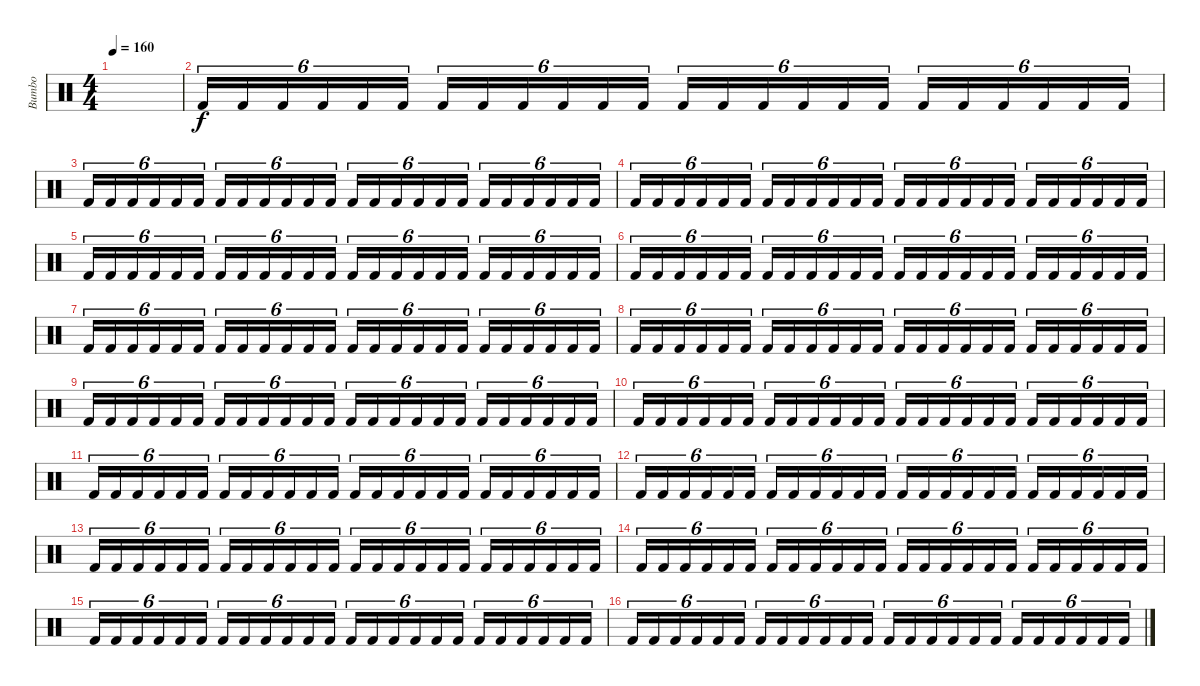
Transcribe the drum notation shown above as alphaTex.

\track ("Bumbo" "Bumbo") {instrument percussion}
\staff {score}
\articulation defaults
\ts (4 4)
\tempo 160
\clef neutral
\ks c
|
"Kick (hit) 2".16{tu (6 4)} "Kick (hit) 2".16{tu (6 4)} "Kick (hit) 2".16{tu (6 4)} "Kick (hit) 2".16{tu (6 4)} "Kick (hit) 2".16{tu (6 4)} "Kick (hit) 2".16{tu (6 4)} "Kick (hit) 2".16{tu (6 4)} "Kick (hit) 2".16{tu (6 4)} "Kick (hit) 2".16{tu (6 4)} "Kick (hit) 2".16{tu (6 4)} "Kick (hit) 2".16{tu (6 4)} "Kick (hit) 2".16{tu (6 4)} "Kick (hit) 2".16{tu (6 4)} "Kick (hit) 2".16{tu (6 4)} "Kick (hit) 2".16{tu (6 4)} "Kick (hit) 2".16{tu (6 4)} "Kick (hit) 2".16{tu (6 4)} "Kick (hit) 2".16{tu (6 4)} "Kick (hit) 2".16{tu (6 4)} "Kick (hit) 2".16{tu (6 4)} "Kick (hit) 2".16{tu (6 4)} "Kick (hit) 2".16{tu (6 4)} "Kick (hit) 2".16{tu (6 4)} "Kick (hit) 2".16{tu (6 4)} |
"Kick (hit) 2".16{tu (6 4)} "Kick (hit) 2".16{tu (6 4)} "Kick (hit) 2".16{tu (6 4)} "Kick (hit) 2".16{tu (6 4)} "Kick (hit) 2".16{tu (6 4)} "Kick (hit) 2".16{tu (6 4)} "Kick (hit) 2".16{tu (6 4)} "Kick (hit) 2".16{tu (6 4)} "Kick (hit) 2".16{tu (6 4)} "Kick (hit) 2".16{tu (6 4)} "Kick (hit) 2".16{tu (6 4)} "Kick (hit) 2".16{tu (6 4)} "Kick (hit) 2".16{tu (6 4)} "Kick (hit) 2".16{tu (6 4)} "Kick (hit) 2".16{tu (6 4)} "Kick (hit) 2".16{tu (6 4)} "Kick (hit) 2".16{tu (6 4)} "Kick (hit) 2".16{tu (6 4)} "Kick (hit) 2".16{tu (6 4)} "Kick (hit) 2".16{tu (6 4)} "Kick (hit) 2".16{tu (6 4)} "Kick (hit) 2".16{tu (6 4)} "Kick (hit) 2".16{tu (6 4)} "Kick (hit) 2".16{tu (6 4)} |
"Kick (hit) 2".16{tu (6 4)} "Kick (hit) 2".16{tu (6 4)} "Kick (hit) 2".16{tu (6 4)} "Kick (hit) 2".16{tu (6 4)} "Kick (hit) 2".16{tu (6 4)} "Kick (hit) 2".16{tu (6 4)} "Kick (hit) 2".16{tu (6 4)} "Kick (hit) 2".16{tu (6 4)} "Kick (hit) 2".16{tu (6 4)} "Kick (hit) 2".16{tu (6 4)} "Kick (hit) 2".16{tu (6 4)} "Kick (hit) 2".16{tu (6 4)} "Kick (hit) 2".16{tu (6 4)} "Kick (hit) 2".16{tu (6 4)} "Kick (hit) 2".16{tu (6 4)} "Kick (hit) 2".16{tu (6 4)} "Kick (hit) 2".16{tu (6 4)} "Kick (hit) 2".16{tu (6 4)} "Kick (hit) 2".16{tu (6 4)} "Kick (hit) 2".16{tu (6 4)} "Kick (hit) 2".16{tu (6 4)} "Kick (hit) 2".16{tu (6 4)} "Kick (hit) 2".16{tu (6 4)} "Kick (hit) 2".16{tu (6 4)} |
"Kick (hit) 2".16{tu (6 4)} "Kick (hit) 2".16{tu (6 4)} "Kick (hit) 2".16{tu (6 4)} "Kick (hit) 2".16{tu (6 4)} "Kick (hit) 2".16{tu (6 4)} "Kick (hit) 2".16{tu (6 4)} "Kick (hit) 2".16{tu (6 4)} "Kick (hit) 2".16{tu (6 4)} "Kick (hit) 2".16{tu (6 4)} "Kick (hit) 2".16{tu (6 4)} "Kick (hit) 2".16{tu (6 4)} "Kick (hit) 2".16{tu (6 4)} "Kick (hit) 2".16{tu (6 4)} "Kick (hit) 2".16{tu (6 4)} "Kick (hit) 2".16{tu (6 4)} "Kick (hit) 2".16{tu (6 4)} "Kick (hit) 2".16{tu (6 4)} "Kick (hit) 2".16{tu (6 4)} "Kick (hit) 2".16{tu (6 4)} "Kick (hit) 2".16{tu (6 4)} "Kick (hit) 2".16{tu (6 4)} "Kick (hit) 2".16{tu (6 4)} "Kick (hit) 2".16{tu (6 4)} "Kick (hit) 2".16{tu (6 4)} |
"Kick (hit) 2".16{tu (6 4)} "Kick (hit) 2".16{tu (6 4)} "Kick (hit) 2".16{tu (6 4)} "Kick (hit) 2".16{tu (6 4)} "Kick (hit) 2".16{tu (6 4)} "Kick (hit) 2".16{tu (6 4)} "Kick (hit) 2".16{tu (6 4)} "Kick (hit) 2".16{tu (6 4)} "Kick (hit) 2".16{tu (6 4)} "Kick (hit) 2".16{tu (6 4)} "Kick (hit) 2".16{tu (6 4)} "Kick (hit) 2".16{tu (6 4)} "Kick (hit) 2".16{tu (6 4)} "Kick (hit) 2".16{tu (6 4)} "Kick (hit) 2".16{tu (6 4)} "Kick (hit) 2".16{tu (6 4)} "Kick (hit) 2".16{tu (6 4)} "Kick (hit) 2".16{tu (6 4)} "Kick (hit) 2".16{tu (6 4)} "Kick (hit) 2".16{tu (6 4)} "Kick (hit) 2".16{tu (6 4)} "Kick (hit) 2".16{tu (6 4)} "Kick (hit) 2".16{tu (6 4)} "Kick (hit) 2".16{tu (6 4)} |
"Kick (hit) 2".16{tu (6 4)} "Kick (hit) 2".16{tu (6 4)} "Kick (hit) 2".16{tu (6 4)} "Kick (hit) 2".16{tu (6 4)} "Kick (hit) 2".16{tu (6 4)} "Kick (hit) 2".16{tu (6 4)} "Kick (hit) 2".16{tu (6 4)} "Kick (hit) 2".16{tu (6 4)} "Kick (hit) 2".16{tu (6 4)} "Kick (hit) 2".16{tu (6 4)} "Kick (hit) 2".16{tu (6 4)} "Kick (hit) 2".16{tu (6 4)} "Kick (hit) 2".16{tu (6 4)} "Kick (hit) 2".16{tu (6 4)} "Kick (hit) 2".16{tu (6 4)} "Kick (hit) 2".16{tu (6 4)} "Kick (hit) 2".16{tu (6 4)} "Kick (hit) 2".16{tu (6 4)} "Kick (hit) 2".16{tu (6 4)} "Kick (hit) 2".16{tu (6 4)} "Kick (hit) 2".16{tu (6 4)} "Kick (hit) 2".16{tu (6 4)} "Kick (hit) 2".16{tu (6 4)} "Kick (hit) 2".16{tu (6 4)} |
"Kick (hit) 2".16{tu (6 4)} "Kick (hit) 2".16{tu (6 4)} "Kick (hit) 2".16{tu (6 4)} "Kick (hit) 2".16{tu (6 4)} "Kick (hit) 2".16{tu (6 4)} "Kick (hit) 2".16{tu (6 4)} "Kick (hit) 2".16{tu (6 4)} "Kick (hit) 2".16{tu (6 4)} "Kick (hit) 2".16{tu (6 4)} "Kick (hit) 2".16{tu (6 4)} "Kick (hit) 2".16{tu (6 4)} "Kick (hit) 2".16{tu (6 4)} "Kick (hit) 2".16{tu (6 4)} "Kick (hit) 2".16{tu (6 4)} "Kick (hit) 2".16{tu (6 4)} "Kick (hit) 2".16{tu (6 4)} "Kick (hit) 2".16{tu (6 4)} "Kick (hit) 2".16{tu (6 4)} "Kick (hit) 2".16{tu (6 4)} "Kick (hit) 2".16{tu (6 4)} "Kick (hit) 2".16{tu (6 4)} "Kick (hit) 2".16{tu (6 4)} "Kick (hit) 2".16{tu (6 4)} "Kick (hit) 2".16{tu (6 4)} |
"Kick (hit) 2".16{tu (6 4)} "Kick (hit) 2".16{tu (6 4)} "Kick (hit) 2".16{tu (6 4)} "Kick (hit) 2".16{tu (6 4)} "Kick (hit) 2".16{tu (6 4)} "Kick (hit) 2".16{tu (6 4)} "Kick (hit) 2".16{tu (6 4)} "Kick (hit) 2".16{tu (6 4)} "Kick (hit) 2".16{tu (6 4)} "Kick (hit) 2".16{tu (6 4)} "Kick (hit) 2".16{tu (6 4)} "Kick (hit) 2".16{tu (6 4)} "Kick (hit) 2".16{tu (6 4)} "Kick (hit) 2".16{tu (6 4)} "Kick (hit) 2".16{tu (6 4)} "Kick (hit) 2".16{tu (6 4)} "Kick (hit) 2".16{tu (6 4)} "Kick (hit) 2".16{tu (6 4)} "Kick (hit) 2".16{tu (6 4)} "Kick (hit) 2".16{tu (6 4)} "Kick (hit) 2".16{tu (6 4)} "Kick (hit) 2".16{tu (6 4)} "Kick (hit) 2".16{tu (6 4)} "Kick (hit) 2".16{tu (6 4)} |
"Kick (hit) 2".16{tu (6 4)} "Kick (hit) 2".16{tu (6 4)} "Kick (hit) 2".16{tu (6 4)} "Kick (hit) 2".16{tu (6 4)} "Kick (hit) 2".16{tu (6 4)} "Kick (hit) 2".16{tu (6 4)} "Kick (hit) 2".16{tu (6 4)} "Kick (hit) 2".16{tu (6 4)} "Kick (hit) 2".16{tu (6 4)} "Kick (hit) 2".16{tu (6 4)} "Kick (hit) 2".16{tu (6 4)} "Kick (hit) 2".16{tu (6 4)} "Kick (hit) 2".16{tu (6 4)} "Kick (hit) 2".16{tu (6 4)} "Kick (hit) 2".16{tu (6 4)} "Kick (hit) 2".16{tu (6 4)} "Kick (hit) 2".16{tu (6 4)} "Kick (hit) 2".16{tu (6 4)} "Kick (hit) 2".16{tu (6 4)} "Kick (hit) 2".16{tu (6 4)} "Kick (hit) 2".16{tu (6 4)} "Kick (hit) 2".16{tu (6 4)} "Kick (hit) 2".16{tu (6 4)} "Kick (hit) 2".16{tu (6 4)} |
"Kick (hit) 2".16{tu (6 4)} "Kick (hit) 2".16{tu (6 4)} "Kick (hit) 2".16{tu (6 4)} "Kick (hit) 2".16{tu (6 4)} "Kick (hit) 2".16{tu (6 4)} "Kick (hit) 2".16{tu (6 4)} "Kick (hit) 2".16{tu (6 4)} "Kick (hit) 2".16{tu (6 4)} "Kick (hit) 2".16{tu (6 4)} "Kick (hit) 2".16{tu (6 4)} "Kick (hit) 2".16{tu (6 4)} "Kick (hit) 2".16{tu (6 4)} "Kick (hit) 2".16{tu (6 4)} "Kick (hit) 2".16{tu (6 4)} "Kick (hit) 2".16{tu (6 4)} "Kick (hit) 2".16{tu (6 4)} "Kick (hit) 2".16{tu (6 4)} "Kick (hit) 2".16{tu (6 4)} "Kick (hit) 2".16{tu (6 4)} "Kick (hit) 2".16{tu (6 4)} "Kick (hit) 2".16{tu (6 4)} "Kick (hit) 2".16{tu (6 4)} "Kick (hit) 2".16{tu (6 4)} "Kick (hit) 2".16{tu (6 4)} |
"Kick (hit) 2".16{tu (6 4)} "Kick (hit) 2".16{tu (6 4)} "Kick (hit) 2".16{tu (6 4)} "Kick (hit) 2".16{tu (6 4)} "Kick (hit) 2".16{tu (6 4)} "Kick (hit) 2".16{tu (6 4)} "Kick (hit) 2".16{tu (6 4)} "Kick (hit) 2".16{tu (6 4)} "Kick (hit) 2".16{tu (6 4)} "Kick (hit) 2".16{tu (6 4)} "Kick (hit) 2".16{tu (6 4)} "Kick (hit) 2".16{tu (6 4)} "Kick (hit) 2".16{tu (6 4)} "Kick (hit) 2".16{tu (6 4)} "Kick (hit) 2".16{tu (6 4)} "Kick (hit) 2".16{tu (6 4)} "Kick (hit) 2".16{tu (6 4)} "Kick (hit) 2".16{tu (6 4)} "Kick (hit) 2".16{tu (6 4)} "Kick (hit) 2".16{tu (6 4)} "Kick (hit) 2".16{tu (6 4)} "Kick (hit) 2".16{tu (6 4)} "Kick (hit) 2".16{tu (6 4)} "Kick (hit) 2".16{tu (6 4)} |
"Kick (hit) 2".16{tu (6 4)} "Kick (hit) 2".16{tu (6 4)} "Kick (hit) 2".16{tu (6 4)} "Kick (hit) 2".16{tu (6 4)} "Kick (hit) 2".16{tu (6 4)} "Kick (hit) 2".16{tu (6 4)} "Kick (hit) 2".16{tu (6 4)} "Kick (hit) 2".16{tu (6 4)} "Kick (hit) 2".16{tu (6 4)} "Kick (hit) 2".16{tu (6 4)} "Kick (hit) 2".16{tu (6 4)} "Kick (hit) 2".16{tu (6 4)} "Kick (hit) 2".16{tu (6 4)} "Kick (hit) 2".16{tu (6 4)} "Kick (hit) 2".16{tu (6 4)} "Kick (hit) 2".16{tu (6 4)} "Kick (hit) 2".16{tu (6 4)} "Kick (hit) 2".16{tu (6 4)} "Kick (hit) 2".16{tu (6 4)} "Kick (hit) 2".16{tu (6 4)} "Kick (hit) 2".16{tu (6 4)} "Kick (hit) 2".16{tu (6 4)} "Kick (hit) 2".16{tu (6 4)} "Kick (hit) 2".16{tu (6 4)} |
"Kick (hit) 2".16{tu (6 4)} "Kick (hit) 2".16{tu (6 4)} "Kick (hit) 2".16{tu (6 4)} "Kick (hit) 2".16{tu (6 4)} "Kick (hit) 2".16{tu (6 4)} "Kick (hit) 2".16{tu (6 4)} "Kick (hit) 2".16{tu (6 4)} "Kick (hit) 2".16{tu (6 4)} "Kick (hit) 2".16{tu (6 4)} "Kick (hit) 2".16{tu (6 4)} "Kick (hit) 2".16{tu (6 4)} "Kick (hit) 2".16{tu (6 4)} "Kick (hit) 2".16{tu (6 4)} "Kick (hit) 2".16{tu (6 4)} "Kick (hit) 2".16{tu (6 4)} "Kick (hit) 2".16{tu (6 4)} "Kick (hit) 2".16{tu (6 4)} "Kick (hit) 2".16{tu (6 4)} "Kick (hit) 2".16{tu (6 4)} "Kick (hit) 2".16{tu (6 4)} "Kick (hit) 2".16{tu (6 4)} "Kick (hit) 2".16{tu (6 4)} "Kick (hit) 2".16{tu (6 4)} "Kick (hit) 2".16{tu (6 4)} |
"Kick (hit) 2".16{tu (6 4)} "Kick (hit) 2".16{tu (6 4)} "Kick (hit) 2".16{tu (6 4)} "Kick (hit) 2".16{tu (6 4)} "Kick (hit) 2".16{tu (6 4)} "Kick (hit) 2".16{tu (6 4)} "Kick (hit) 2".16{tu (6 4)} "Kick (hit) 2".16{tu (6 4)} "Kick (hit) 2".16{tu (6 4)} "Kick (hit) 2".16{tu (6 4)} "Kick (hit) 2".16{tu (6 4)} "Kick (hit) 2".16{tu (6 4)} "Kick (hit) 2".16{tu (6 4)} "Kick (hit) 2".16{tu (6 4)} "Kick (hit) 2".16{tu (6 4)} "Kick (hit) 2".16{tu (6 4)} "Kick (hit) 2".16{tu (6 4)} "Kick (hit) 2".16{tu (6 4)} "Kick (hit) 2".16{tu (6 4)} "Kick (hit) 2".16{tu (6 4)} "Kick (hit) 2".16{tu (6 4)} "Kick (hit) 2".16{tu (6 4)} "Kick (hit) 2".16{tu (6 4)} "Kick (hit) 2".16{tu (6 4)} |
"Kick (hit) 2".16{tu (6 4)} "Kick (hit) 2".16{tu (6 4)} "Kick (hit) 2".16{tu (6 4)} "Kick (hit) 2".16{tu (6 4)} "Kick (hit) 2".16{tu (6 4)} "Kick (hit) 2".16{tu (6 4)} "Kick (hit) 2".16{tu (6 4)} "Kick (hit) 2".16{tu (6 4)} "Kick (hit) 2".16{tu (6 4)} "Kick (hit) 2".16{tu (6 4)} "Kick (hit) 2".16{tu (6 4)} "Kick (hit) 2".16{tu (6 4)} "Kick (hit) 2".16{tu (6 4)} "Kick (hit) 2".16{tu (6 4)} "Kick (hit) 2".16{tu (6 4)} "Kick (hit) 2".16{tu (6 4)} "Kick (hit) 2".16{tu (6 4)} "Kick (hit) 2".16{tu (6 4)} "Kick (hit) 2".16{tu (6 4)} "Kick (hit) 2".16{tu (6 4)} "Kick (hit) 2".16{tu (6 4)} "Kick (hit) 2".16{tu (6 4)} "Kick (hit) 2".16{tu (6 4)} "Kick (hit) 2".16{tu (6 4)}
